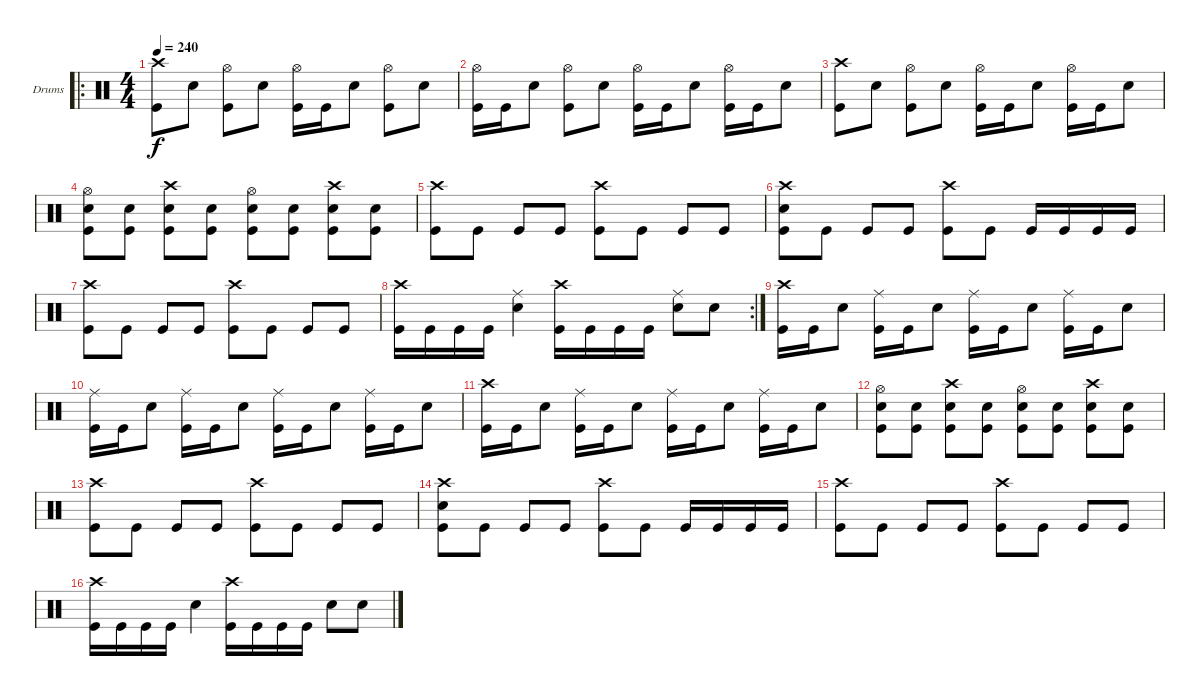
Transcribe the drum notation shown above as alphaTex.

\bracketExtendMode groupsimilarinstruments
\firstSystemTrackNameOrientation horizontal
\otherSystemsTrackNameOrientation horizontal
\track ("Drumkit" "Drums") {instrument percussion}
\staff {score}
\articulation defaults
\ro
\ts (4 4)
\tempo 240
\clef neutral
\ks c
("Crash high (hit)" "Kick (hit)").8{dy f} "Snare (hit) 2".8 ("Hi-Hat (open)" "Kick (hit)").8 "Snare (hit) 2".8 ("Hi-Hat (open)" "Kick (hit)").16 "Kick (hit)".16 "Snare (hit) 2".8 ("Hi-Hat (open)" "Kick (hit)").8 "Snare (hit) 2".8 |
("Hi-Hat (open)" "Kick (hit)").16 "Kick (hit)".16 "Snare (hit) 2".8 ("Hi-Hat (open)" "Kick (hit)").8 "Snare (hit) 2".8 ("Hi-Hat (open)" "Kick (hit)").16 "Kick (hit)".16 "Snare (hit) 2".8 ("Hi-Hat (open)" "Kick (hit)").16 "Kick (hit)".16 "Snare (hit) 2".8 |
("Crash high (hit)" "Kick (hit)").8 "Snare (hit) 2".8 ("Hi-Hat (open)" "Kick (hit)").8 "Snare (hit) 2".8 ("Hi-Hat (open)" "Kick (hit)").16 "Kick (hit)".16 "Snare (hit) 2".8 ("Hi-Hat (open)" "Kick (hit)").16 "Kick (hit)".16 "Snare (hit) 2".8 |
("Hi-Hat (open)" "Snare (hit) 2" "Kick (hit)").8 ("Snare (hit) 2" "Kick (hit)").8 ("Crash high (hit)" "Snare (hit) 2" "Kick (hit)").8 ("Snare (hit) 2" "Kick (hit)").8 ("Hi-Hat (open)" "Snare (hit) 2" "Kick (hit)").8 ("Snare (hit) 2" "Kick (hit)").8 ("Crash high (hit)" "Snare (hit) 2" "Kick (hit)").8 ("Snare (hit) 2" "Kick (hit)").8 |
("Crash high (hit)" "Kick (hit)").8 "Kick (hit)".8 "Kick (hit)".8 "Kick (hit)".8 ("Crash high (hit)" "Kick (hit)").8 "Kick (hit)".8 "Kick (hit)".8 "Kick (hit)".8 |
("Crash high (hit)" "Snare (hit) 2" "Kick (hit)").8 "Kick (hit)".8 "Kick (hit)".8 "Kick (hit)".8 ("Crash high (hit)" "Kick (hit)").8 "Kick (hit)".8 "Kick (hit)".16 "Kick (hit)".16 "Kick (hit)".16 "Kick (hit)".16 |
("Crash high (hit)" "Kick (hit)").8 "Kick (hit)".8 "Kick (hit)".8 "Kick (hit)".8 ("Crash high (hit)" "Kick (hit)").8 "Kick (hit)".8 "Kick (hit)".8 "Kick (hit)".8 |
\rc 2
("Crash high (hit)" "Kick (hit)").16 "Kick (hit)".16 "Kick (hit)".16 "Kick (hit)".16 ("Ride (middle)" "Snare (hit) 2").4 ("Crash high (hit)" "Kick (hit)").16 "Kick (hit)".16 "Kick (hit)".16 "Kick (hit)".16 ("Ride (middle)" "Snare (hit) 2").8 "Snare (hit) 2".8 |
("Crash high (hit)" "Kick (hit)").16 "Kick (hit)".16 "Snare (hit) 2".8 ("Ride (middle)" "Kick (hit)").16 "Kick (hit)".16 "Snare (hit) 2".8 ("Ride (middle)" "Kick (hit)").16 "Kick (hit)".16 "Snare (hit) 2".8 ("Ride (middle)" "Kick (hit)").16 "Kick (hit)".16 "Snare (hit) 2".8 |
("Ride (middle)" "Kick (hit)").16 "Kick (hit)".16 "Snare (hit) 2".8 ("Ride (middle)" "Kick (hit)").16 "Kick (hit)".16 "Snare (hit) 2".8 ("Ride (middle)" "Kick (hit)").16 "Kick (hit)".16 "Snare (hit) 2".8 ("Ride (middle)" "Kick (hit)").16 "Kick (hit)".16 "Snare (hit) 2".8 |
("Crash high (hit)" "Kick (hit)").16 "Kick (hit)".16 "Snare (hit) 2".8 ("Ride (middle)" "Kick (hit)").16 "Kick (hit)".16 "Snare (hit) 2".8 ("Ride (middle)" "Kick (hit)").16 "Kick (hit)".16 "Snare (hit) 2".8 ("Ride (middle)" "Kick (hit)").16 "Kick (hit)".16 "Snare (hit) 2".8 |
("Hi-Hat (open)" "Snare (hit) 2" "Kick (hit)").8 ("Snare (hit) 2" "Kick (hit)").8 ("Crash high (hit)" "Snare (hit) 2" "Kick (hit)").8 ("Snare (hit) 2" "Kick (hit)").8 ("Hi-Hat (open)" "Snare (hit) 2" "Kick (hit)").8 ("Snare (hit) 2" "Kick (hit)").8 ("Crash high (hit)" "Snare (hit) 2" "Kick (hit)").8 ("Snare (hit) 2" "Kick (hit)").8 |
("Crash high (hit)" "Kick (hit)").8 "Kick (hit)".8 "Kick (hit)".8 "Kick (hit)".8 ("Crash high (hit)" "Kick (hit)").8 "Kick (hit)".8 "Kick (hit)".8 "Kick (hit)".8 |
("Crash high (hit)" "Snare (hit) 2" "Kick (hit)").8 "Kick (hit)".8 "Kick (hit)".8 "Kick (hit)".8 ("Crash high (hit)" "Kick (hit)").8 "Kick (hit)".8 "Kick (hit)".16 "Kick (hit)".16 "Kick (hit)".16 "Kick (hit)".16 |
("Crash high (hit)" "Kick (hit)").8 "Kick (hit)".8 "Kick (hit)".8 "Kick (hit)".8 ("Crash high (hit)" "Kick (hit)").8 "Kick (hit)".8 "Kick (hit)".8 "Kick (hit)".8 |
("Crash high (hit)" "Kick (hit)").16 "Kick (hit)".16 "Kick (hit)".16 "Kick (hit)".16 "Snare (hit) 2".4 ("Crash high (hit)" "Kick (hit)").16 "Kick (hit)".16 "Kick (hit)".16 "Kick (hit)".16 "Snare (hit) 2".8 "Snare (hit) 2".8
